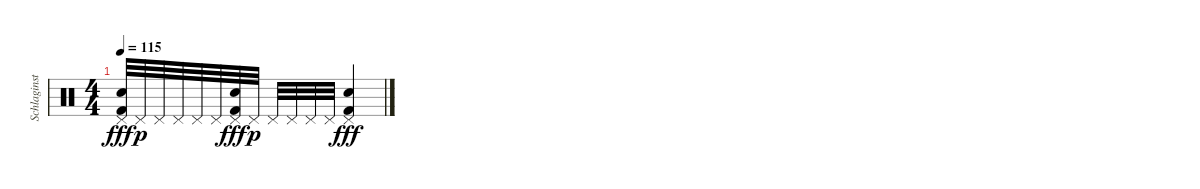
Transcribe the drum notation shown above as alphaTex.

\track ("Schlaginstrumente - Auswahl" "Schlaginst") {instrument percussion}
\staff {score}
\articulation defaults
\ts (4 4)
\tempo 115
\clef neutral
\ks c
("Pedal Hi-Hat (hit)" "Snare (hit) 2" "Kick (hit) 2").32{dy fff} "Pedal Hi-Hat (hit)".32{dy p} "Pedal Hi-Hat (hit)".32 "Pedal Hi-Hat (hit)".32 "Pedal Hi-Hat (hit)".32 "Pedal Hi-Hat (hit)".32 ("Pedal Hi-Hat (hit)" "Snare (hit) 2" "Kick (hit) 2").32{dy fff} "Pedal Hi-Hat (hit)".32{dy p} "Pedal Hi-Hat (hit)".32 "Pedal Hi-Hat (hit)".32 "Pedal Hi-Hat (hit)".32 "Pedal Hi-Hat (hit)".32 ("Pedal Hi-Hat (hit)" "Snare (hit) 2" "Kick (hit) 2").4{dy fff}
